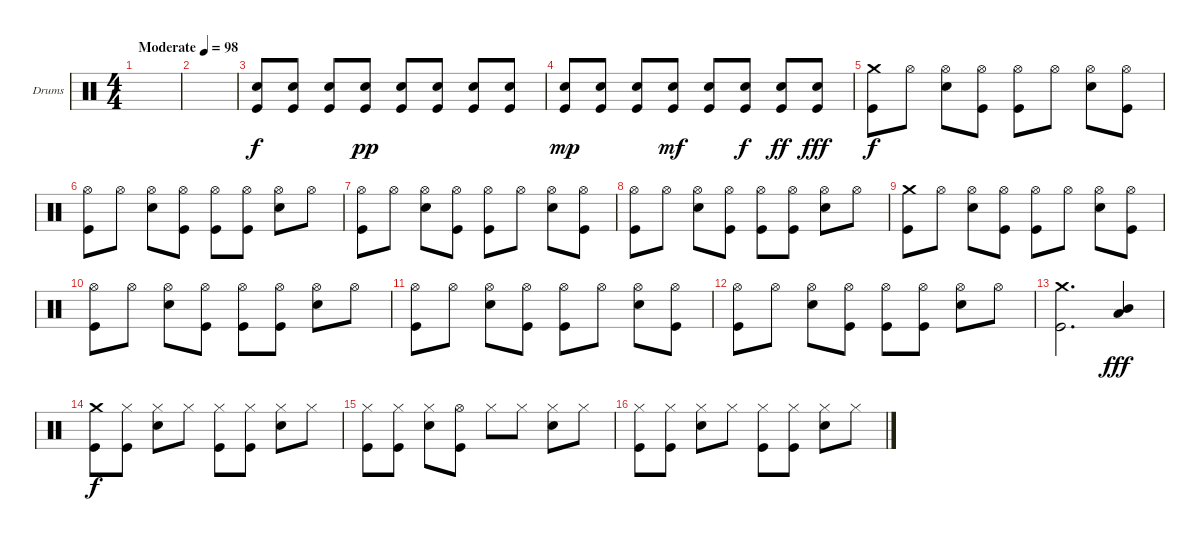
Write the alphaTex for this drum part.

\bracketExtendMode groupsimilarinstruments
\firstSystemTrackNameOrientation horizontal
\otherSystemsTrackNameOrientation horizontal
\track ("Drumkit" "Drums") {instrument percussion}
\staff {score}
\articulation defaults
\ts (4 4)
\beaming (8 2 2 2 2)
\tempo (98 "Moderate")
\clef neutral
\scale
0.472222
\ks c
|
\scale
0.263889 |
\scale
0.263889 ("Kick (hit)" "Snare (hit) 2").8 ("Kick (hit)" "Snare (hit) 2").8 ("Kick (hit)" "Snare (hit) 2").8 ("Kick (hit)" "Snare (hit) 2").8{dy pp} ("Kick (hit)" "Snare (hit) 2").8 ("Kick (hit)" "Snare (hit) 2").8 ("Kick (hit)" "Snare (hit) 2").8 ("Kick (hit)" "Snare (hit) 2").8 |
\scale
0.333333 ("Kick (hit)" "Snare (hit) 2").8{dy mp} ("Kick (hit)" "Snare (hit) 2").8 ("Kick (hit)" "Snare (hit) 2").8 ("Kick (hit)" "Snare (hit) 2").8{dy mf} ("Kick (hit)" "Snare (hit) 2").8 ("Kick (hit)" "Snare (hit) 2").8{dy f} ("Kick (hit)" "Snare (hit) 2").8{dy ff} ("Kick (hit)" "Snare (hit) 2").8{dy fff} |
\scale
0.333333 ("Kick (hit)" "Crash medium (hit)").8{dy f} "Hi-Hat (open)".8 ("Snare (hit) 2" "Hi-Hat (open)").8 ("Hi-Hat (open)" "Kick (hit)").8 ("Kick (hit)" "Hi-Hat (open)").8 "Hi-Hat (open)".8 ("Snare (hit) 2" "Hi-Hat (open)").8 ("Hi-Hat (open)" "Kick (hit)").8 |
\scale
0.333333 ("Kick (hit)" "Hi-Hat (open)").8 "Hi-Hat (open)".8 ("Snare (hit) 2" "Hi-Hat (open)").8 ("Kick (hit)" "Hi-Hat (open)").8 ("Kick (hit)" "Hi-Hat (open)").8 ("Kick (hit)" "Hi-Hat (open)").8 ("Snare (hit) 2" "Hi-Hat (open)").8 "Hi-Hat (open)".8 |
\scale
0.333333 ("Kick (hit)" "Hi-Hat (open)").8 "Hi-Hat (open)".8 ("Snare (hit) 2" "Hi-Hat (open)").8 ("Hi-Hat (open)" "Kick (hit)").8 ("Kick (hit)" "Hi-Hat (open)").8 "Hi-Hat (open)".8 ("Snare (hit) 2" "Hi-Hat (open)").8 ("Hi-Hat (open)" "Kick (hit)").8 |
\scale
0.333333 ("Kick (hit)" "Hi-Hat (open)").8 "Hi-Hat (open)".8 ("Snare (hit) 2" "Hi-Hat (open)").8 ("Kick (hit)" "Hi-Hat (open)").8 ("Kick (hit)" "Hi-Hat (open)").8 ("Kick (hit)" "Hi-Hat (open)").8 ("Snare (hit) 2" "Hi-Hat (open)").8 "Hi-Hat (open)".8 |
\scale
0.333333 ("Kick (hit)" "Crash medium (hit)").8 "Hi-Hat (open)".8 ("Snare (hit) 2" "Hi-Hat (open)").8 ("Hi-Hat (open)" "Kick (hit)").8 ("Kick (hit)" "Hi-Hat (open)").8 "Hi-Hat (open)".8 ("Snare (hit) 2" "Hi-Hat (open)").8 ("Hi-Hat (open)" "Kick (hit)").8 |
\scale
0.333333 ("Kick (hit)" "Hi-Hat (open)").8 "Hi-Hat (open)".8 ("Snare (hit) 2" "Hi-Hat (open)").8 ("Kick (hit)" "Hi-Hat (open)").8 ("Kick (hit)" "Hi-Hat (open)").8 ("Kick (hit)" "Hi-Hat (open)").8 ("Snare (hit) 2" "Hi-Hat (open)").8 "Hi-Hat (open)".8 |
\scale
0.333333 ("Kick (hit)" "Hi-Hat (open)").8 "Hi-Hat (open)".8 ("Snare (hit) 2" "Hi-Hat (open)").8 ("Hi-Hat (open)" "Kick (hit)").8 ("Kick (hit)" "Hi-Hat (open)").8 "Hi-Hat (open)".8 ("Snare (hit) 2" "Hi-Hat (open)").8 ("Hi-Hat (open)" "Kick (hit)").8 |
\scale
0.333333 ("Kick (hit)" "Hi-Hat (open)").8 "Hi-Hat (open)".8 ("Snare (hit) 2" "Hi-Hat (open)").8 ("Kick (hit)" "Hi-Hat (open)").8 ("Kick (hit)" "Hi-Hat (open)").8 ("Kick (hit)" "Hi-Hat (open)").8 ("Snare (hit) 2" "Hi-Hat (open)").8 "Hi-Hat (open)".8 |
\scale
0.333333 ("Kick (hit)" "Crash medium (hit)").2{d} ("Low Tom (hit)" "Mid Tom (hit)").4{dy fff} |
\scale
0.333333 ("Kick (hit)" "Crash medium (hit)").8{dy f} ("Kick (hit)" "Hi-Hat (closed)").8 ("Snare (hit) 2" "Hi-Hat (closed)").8 "Hi-Hat (closed)".8 ("Kick (hit)" "Hi-Hat (closed)").8 ("Kick (hit)" "Hi-Hat (closed)").8 ("Snare (hit) 2" "Hi-Hat (closed)").8 "Hi-Hat (closed)".8 |
\scale
0.333333 ("Kick (hit)" "Hi-Hat (closed)").8 ("Kick (hit)" "Hi-Hat (closed)").8 ("Snare (hit) 2" "Hi-Hat (closed)").8 ("Kick (hit)" "Hi-Hat (open)").8 "Hi-Hat (closed)".8 "Hi-Hat (closed)".8 ("Snare (hit) 2" "Hi-Hat (closed)").8 "Hi-Hat (closed)".8 |
\scale
0.333333 ("Kick (hit)" "Hi-Hat (closed)").8 ("Kick (hit)" "Hi-Hat (closed)").8 ("Snare (hit) 2" "Hi-Hat (closed)").8 "Hi-Hat (closed)".8 ("Kick (hit)" "Hi-Hat (closed)").8 ("Kick (hit)" "Hi-Hat (closed)").8 ("Snare (hit) 2" "Hi-Hat (closed)").8 "Hi-Hat (closed)".8
